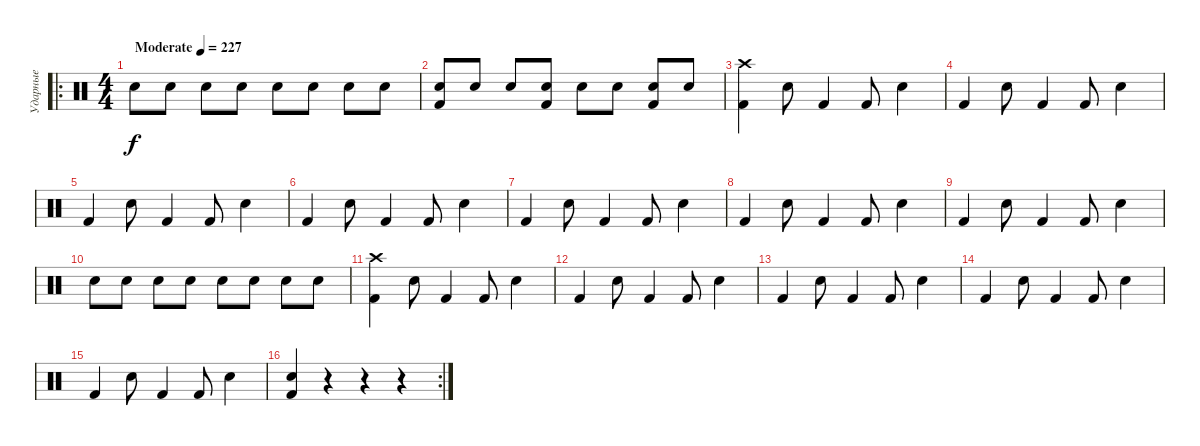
\track ("Ударные" "Ударные") {instrument percussion}
\staff {score}
\articulation defaults
\ro
\ts (4 4)
\tempo (227 "Moderate")
\clef neutral
\ks c "Snare (hit) 2".8{dy f} "Snare (hit) 2".8 "Snare (hit) 2".8 "Snare (hit) 2".8 "Snare (hit) 2".8 "Snare (hit) 2".8 "Snare (hit) 2".8 "Snare (hit) 2".8
|
("Kick (hit) 2" "Snare (hit) 2").8 "Snare (hit) 2".8 "Snare (hit) 2".8 ("Kick (hit) 2" "Snare (hit) 2").8 "Snare (hit) 2".8 "Snare (hit) 2".8 ("Kick (hit) 2" "Snare (hit) 2").8 "Snare (hit) 2".8 |
("Kick (hit) 2" "Crash high (hit)").4 "Snare (hit) 2".8 "Kick (hit) 2".4 "Kick (hit) 2".8 "Snare (hit) 2".4 |
"Kick (hit) 2".4 "Snare (hit) 2".8 "Kick (hit) 2".4 "Kick (hit) 2".8 "Snare (hit) 2".4 |
"Kick (hit) 2".4 "Snare (hit) 2".8 "Kick (hit) 2".4 "Kick (hit) 2".8 "Snare (hit) 2".4 |
"Kick (hit) 2".4 "Snare (hit) 2".8 "Kick (hit) 2".4 "Kick (hit) 2".8 "Snare (hit) 2".4 |
"Kick (hit) 2".4 "Snare (hit) 2".8 "Kick (hit) 2".4 "Kick (hit) 2".8 "Snare (hit) 2".4 |
"Kick (hit) 2".4 "Snare (hit) 2".8 "Kick (hit) 2".4 "Kick (hit) 2".8 "Snare (hit) 2".4 |
"Kick (hit) 2".4 "Snare (hit) 2".8 "Kick (hit) 2".4 "Kick (hit) 2".8 "Snare (hit) 2".4 |
"Snare (hit) 2".8 "Snare (hit) 2".8 "Snare (hit) 2".8 "Snare (hit) 2".8 "Snare (hit) 2".8 "Snare (hit) 2".8 "Snare (hit) 2".8 "Snare (hit) 2".8 |
("Kick (hit) 2" "Crash high (hit)").4 "Snare (hit) 2".8 "Kick (hit) 2".4 "Kick (hit) 2".8 "Snare (hit) 2".4 |
"Kick (hit) 2".4 "Snare (hit) 2".8 "Kick (hit) 2".4 "Kick (hit) 2".8 "Snare (hit) 2".4 |
"Kick (hit) 2".4 "Snare (hit) 2".8 "Kick (hit) 2".4 "Kick (hit) 2".8 "Snare (hit) 2".4 |
"Kick (hit) 2".4 "Snare (hit) 2".8 "Kick (hit) 2".4 "Kick (hit) 2".8 "Snare (hit) 2".4 |
"Kick (hit) 2".4 "Snare (hit) 2".8 "Kick (hit) 2".4 "Kick (hit) 2".8 "Snare (hit) 2".4 |
\rc 2
("Kick (hit) 2" "Snare (hit) 2").4 r.4 r.4 r.4
